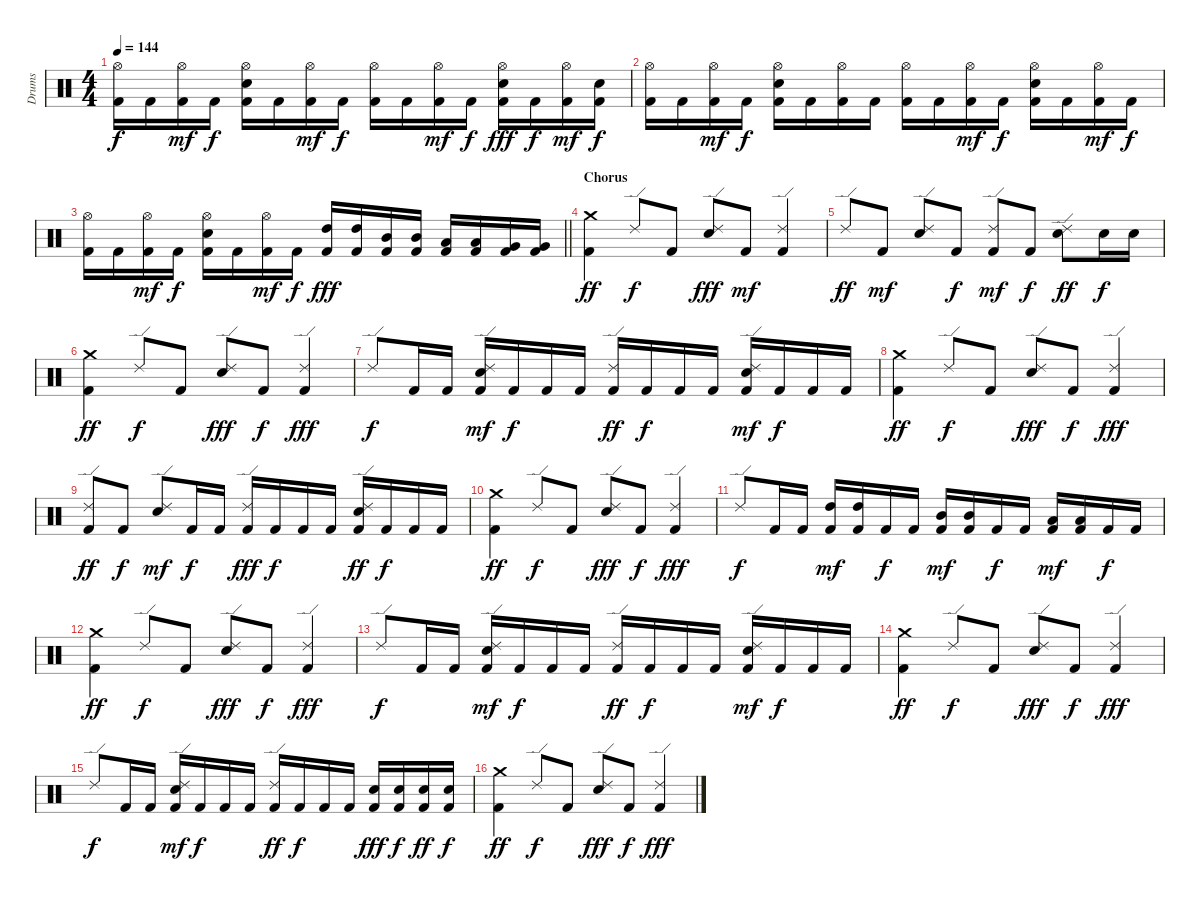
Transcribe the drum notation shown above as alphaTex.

\track ("Drums" "Drums") {instrument percussion}
\staff {score}
\articulation defaults
\ts (4 4)
\tempo 144
\clef neutral
\ks c
("Hi-Hat (open)" "Kick (hit) 2").16{dy f} "Kick (hit) 2".16 ("Hi-Hat (open)" "Kick (hit) 2").16{dy mf} "Kick (hit) 2".16{dy f} ("Hi-Hat (open)" "Electric Snare (hit)" "Kick (hit) 2").16 "Kick (hit) 2".16 ("Hi-Hat (open)" "Kick (hit) 2").16{dy mf} "Kick (hit) 2".16{dy f} ("Hi-Hat (open)" "Kick (hit) 2").16 "Kick (hit) 2".16 ("Hi-Hat (open)" "Kick (hit) 2").16{dy mf} "Kick (hit) 2".16{dy f} ("Hi-Hat (open)" "Electric Snare (hit)" "Kick (hit) 2").16{dy fff} "Kick (hit) 2".16{dy f} ("Hi-Hat (open)" "Kick (hit) 2").16{dy mf} ("Electric Snare (hit)" "Kick (hit) 2").16{dy f} |
("Hi-Hat (open)" "Kick (hit) 2").16 "Kick (hit) 2".16 ("Hi-Hat (open)" "Kick (hit) 2").16{dy mf} "Kick (hit) 2".16{dy f} ("Hi-Hat (open)" "Electric Snare (hit)" "Kick (hit) 2").16 "Kick (hit) 2".16 ("Hi-Hat (open)" "Kick (hit) 2").16 "Kick (hit) 2".16 ("Hi-Hat (open)" "Kick (hit) 2").16 "Kick (hit) 2".16 ("Hi-Hat (open)" "Kick (hit) 2").16{dy mf} "Kick (hit) 2".16{dy f} ("Hi-Hat (open)" "Electric Snare (hit)" "Kick (hit) 2").16 "Kick (hit) 2".16 ("Hi-Hat (open)" "Kick (hit) 2").16{dy mf} "Kick (hit) 2".16{dy f} |
\barLineRight lightlight
("Hi-Hat (open)" "Kick (hit) 2").16 "Kick (hit) 2".16 ("Hi-Hat (open)" "Kick (hit) 2").16{dy mf} "Kick (hit) 2".16{dy f} ("Hi-Hat (open)" "Electric Snare (hit)" "Kick (hit) 2").16 "Kick (hit) 2".16 ("Hi-Hat (open)" "Kick (hit) 2").16{dy mf} "Kick (hit) 2".16{dy f} ("High Tom (hit)" "Kick (hit) 2").16{dy fff} ("High Tom (hit)" "Kick (hit) 2").16 ("Mid Tom (hit)" "Kick (hit) 2").16 ("Mid Tom (hit)" "Kick (hit) 2").16 ("Low Tom (hit)" "Kick (hit) 2").16 ("Low Tom (hit)" "Kick (hit) 2").16 ("Very Low Tom (hit)" "Kick (hit) 2").16 ("Very Low Tom (hit)" "Kick (hit) 2").16 |
\section ("" "Chorus")
("Crash medium (hit)" "Kick (hit) 2").4{dy ff} "Ride (edge) 2".8{dy f} "Kick (hit) 2".8 ("Ride (edge) 2" "Electric Snare (hit)").8{dy fff} "Kick (hit) 2".8{dy mf} ("Ride (edge) 2" "Kick (hit) 2").4 |
"Ride (edge) 2".8{dy ff} "Kick (hit) 2".8{dy mf} ("Ride (edge) 2" "Electric Snare (hit)").8 "Kick (hit) 2".8{dy f} ("Ride (edge) 2" "Kick (hit) 2").8{dy mf} "Kick (hit) 2".8{dy f} ("Ride (edge) 2" "Electric Snare (hit)").8{dy ff} "Electric Snare (hit)".16{dy f} "Electric Snare (hit)".16 |
("Crash medium (hit)" "Kick (hit) 2").4{dy ff} "Ride (edge) 2".8{dy f} "Kick (hit) 2".8 ("Ride (edge) 2" "Electric Snare (hit)").8{dy fff} "Kick (hit) 2".8{dy f} ("Ride (edge) 2" "Kick (hit) 2").4{dy fff} |
"Ride (edge) 2".8{dy f} "Kick (hit) 2".16 "Kick (hit) 2".16 ("Ride (edge) 2" "Electric Snare (hit)" "Kick (hit) 2").16{dy mf} "Kick (hit) 2".16{dy f} "Kick (hit) 2".16 "Kick (hit) 2".16 ("Ride (edge) 2" "Kick (hit) 2").16{dy ff} "Kick (hit) 2".16{dy f} "Kick (hit) 2".16 "Kick (hit) 2".16 ("Ride (edge) 2" "Electric Snare (hit)" "Kick (hit) 2").16{dy mf} "Kick (hit) 2".16{dy f} "Kick (hit) 2".16 "Kick (hit) 2".16 |
("Crash medium (hit)" "Kick (hit) 2").4{dy ff} "Ride (edge) 2".8{dy f} "Kick (hit) 2".8 ("Ride (edge) 2" "Electric Snare (hit)").8{dy fff} "Kick (hit) 2".8{dy f} ("Ride (edge) 2" "Kick (hit) 2").4{dy fff} |
("Ride (edge) 2" "Kick (hit) 2").8{dy ff} "Kick (hit) 2".8{dy f} ("Ride (edge) 2" "Electric Snare (hit)").8{dy mf} "Kick (hit) 2".16{dy f} "Kick (hit) 2".16 ("Ride (edge) 2" "Kick (hit) 2").16{dy fff} "Kick (hit) 2".16{dy f} "Kick (hit) 2".16 "Kick (hit) 2".16 ("Ride (edge) 2" "Electric Snare (hit)" "Kick (hit) 2").16{dy ff} "Kick (hit) 2".16{dy f} "Kick (hit) 2".16 "Kick (hit) 2".16 |
("Crash medium (hit)" "Kick (hit) 2").4{dy ff} "Ride (edge) 2".8{dy f} "Kick (hit) 2".8 ("Ride (edge) 2" "Electric Snare (hit)").8{dy fff} "Kick (hit) 2".8{dy f} ("Ride (edge) 2" "Kick (hit) 2").4{dy fff} |
"Ride (edge) 2".8{dy f} "Kick (hit) 2".16 "Kick (hit) 2".16 ("High Tom (hit)" "Kick (hit) 2").16{dy mf} ("High Tom (hit)" "Kick (hit) 2").16 "Kick (hit) 2".16{dy f} "Kick (hit) 2".16 ("Mid Tom (hit)" "Kick (hit) 2").16{dy mf} ("Mid Tom (hit)" "Kick (hit) 2").16 "Kick (hit) 2".16{dy f} "Kick (hit) 2".16 ("Low Tom (hit)" "Kick (hit) 2").16{dy mf} ("Low Tom (hit)" "Kick (hit) 2").16 "Kick (hit) 2".16{dy f} "Kick (hit) 2".16 |
("Crash medium (hit)" "Kick (hit) 2").4{dy ff} "Ride (edge) 2".8{dy f} "Kick (hit) 2".8 ("Ride (edge) 2" "Electric Snare (hit)").8{dy fff} "Kick (hit) 2".8{dy f} ("Ride (edge) 2" "Kick (hit) 2").4{dy fff} |
"Ride (edge) 2".8{dy f} "Kick (hit) 2".16 "Kick (hit) 2".16 ("Ride (edge) 2" "Electric Snare (hit)" "Kick (hit) 2").16{dy mf} "Kick (hit) 2".16{dy f} "Kick (hit) 2".16 "Kick (hit) 2".16 ("Ride (edge) 2" "Kick (hit) 2").16{dy ff} "Kick (hit) 2".16{dy f} "Kick (hit) 2".16 "Kick (hit) 2".16 ("Ride (edge) 2" "Electric Snare (hit)" "Kick (hit) 2").16{dy mf} "Kick (hit) 2".16{dy f} "Kick (hit) 2".16 "Kick (hit) 2".16 |
("Crash medium (hit)" "Kick (hit) 2").4{dy ff} "Ride (edge) 2".8{dy f} "Kick (hit) 2".8 ("Ride (edge) 2" "Electric Snare (hit)").8{dy fff} "Kick (hit) 2".8{dy f} ("Ride (edge) 2" "Kick (hit) 2").4{dy fff} |
"Ride (edge) 2".8{dy f} "Kick (hit) 2".16 "Kick (hit) 2".16 ("Ride (edge) 2" "Electric Snare (hit)" "Kick (hit) 2").16{dy mf} "Kick (hit) 2".16{dy f} "Kick (hit) 2".16 "Kick (hit) 2".16 ("Ride (edge) 2" "Kick (hit) 2").16{dy ff} "Kick (hit) 2".16{dy f} "Kick (hit) 2".16 "Kick (hit) 2".16 ("Electric Snare (hit)" "Kick (hit) 2").16{dy fff} ("Electric Snare (hit)" "Kick (hit) 2").16{dy f} ("Electric Snare (hit)" "Kick (hit) 2").16{dy ff} ("Electric Snare (hit)" "Kick (hit) 2").16{dy f} |
("Crash medium (hit)" "Kick (hit) 2").4{dy ff} "Ride (edge) 2".8{dy f} "Kick (hit) 2".8 ("Ride (edge) 2" "Electric Snare (hit)").8{dy fff} "Kick (hit) 2".8{dy f} ("Ride (edge) 2" "Kick (hit) 2").4{dy fff}
